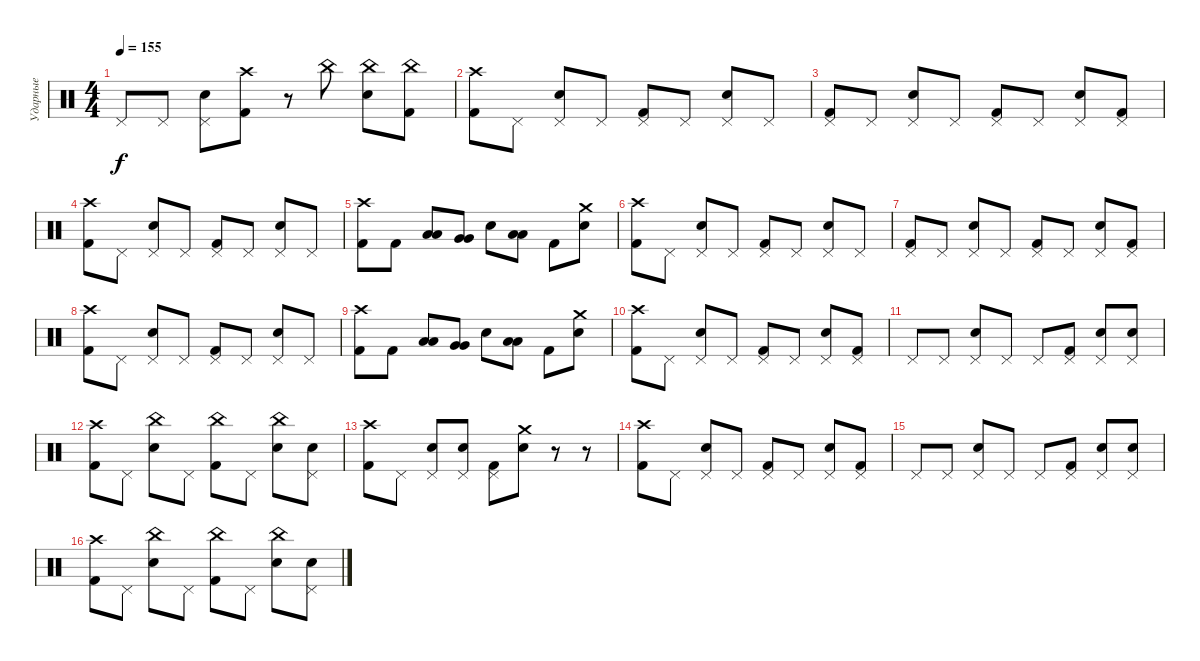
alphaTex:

\track ("Ударные" "Ударные") {instrument percussion}
\staff {score}
\articulation defaults
\ts (4 4)
\tempo 155
\clef neutral
\ks c "Pedal Hi-Hat (hit)".8{dy f} "Pedal Hi-Hat (hit)".8
("Pedal Hi-Hat (hit)" "Snare (hit) 2").8 ("Crash high (hit)" "Kick (hit) 2").8 r.8 "China (hit)".8 ("China (hit)" "Snare (hit) 2").8 ("China (hit)" "Kick (hit) 2").8 |
("Crash high (hit)" "Kick (hit) 2").8 "Pedal Hi-Hat (hit)".8 ("Pedal Hi-Hat (hit)" "Snare (hit) 2").8 "Pedal Hi-Hat (hit)".8 ("Pedal Hi-Hat (hit)" "Kick (hit) 2").8 "Pedal Hi-Hat (hit)".8 ("Pedal Hi-Hat (hit)" "Snare (hit) 2").8 "Pedal Hi-Hat (hit)".8 |
("Pedal Hi-Hat (hit)" "Kick (hit) 2").8 "Pedal Hi-Hat (hit)".8 ("Pedal Hi-Hat (hit)" "Snare (hit) 2").8 "Pedal Hi-Hat (hit)".8 ("Pedal Hi-Hat (hit)" "Kick (hit) 2").8 "Pedal Hi-Hat (hit)".8 ("Pedal Hi-Hat (hit)" "Snare (hit) 2").8 ("Pedal Hi-Hat (hit)" "Kick (hit) 2").8 |
("Crash high (hit)" "Kick (hit) 2").8 "Pedal Hi-Hat (hit)".8 ("Pedal Hi-Hat (hit)" "Snare (hit) 2").8 "Pedal Hi-Hat (hit)".8 ("Pedal Hi-Hat (hit)" "Kick (hit) 2").8 "Pedal Hi-Hat (hit)".8 ("Pedal Hi-Hat (hit)" "Snare (hit) 2").8 "Pedal Hi-Hat (hit)".8 |
("Crash high (hit)" "Kick (hit) 2").8 "Kick (hit) 2".8 ("Low Tom (hit)" "Low Tom (hit)").8 ("Very Low Tom (hit)" "Very Low Tom (hit)").8 "Snare (hit) 2".8 ("Low Floor Tom (hit)" "Low Floor Tom (hit)").8 "Kick (hit) 2".8 ("Crash medium (hit)" "Snare (hit) 2").8 |
("Crash high (hit)" "Kick (hit) 2").8 "Pedal Hi-Hat (hit)".8 ("Pedal Hi-Hat (hit)" "Snare (hit) 2").8 "Pedal Hi-Hat (hit)".8 ("Pedal Hi-Hat (hit)" "Kick (hit) 2").8 "Pedal Hi-Hat (hit)".8 ("Pedal Hi-Hat (hit)" "Snare (hit) 2").8 "Pedal Hi-Hat (hit)".8 |
("Pedal Hi-Hat (hit)" "Kick (hit) 2").8 "Pedal Hi-Hat (hit)".8 ("Pedal Hi-Hat (hit)" "Snare (hit) 2").8 "Pedal Hi-Hat (hit)".8 ("Pedal Hi-Hat (hit)" "Kick (hit) 2").8 "Pedal Hi-Hat (hit)".8 ("Pedal Hi-Hat (hit)" "Snare (hit) 2").8 ("Pedal Hi-Hat (hit)" "Kick (hit) 2").8 |
("Crash high (hit)" "Kick (hit) 2").8 "Pedal Hi-Hat (hit)".8 ("Pedal Hi-Hat (hit)" "Snare (hit) 2").8 "Pedal Hi-Hat (hit)".8 ("Pedal Hi-Hat (hit)" "Kick (hit) 2").8 "Pedal Hi-Hat (hit)".8 ("Pedal Hi-Hat (hit)" "Snare (hit) 2").8 "Pedal Hi-Hat (hit)".8 |
("Crash high (hit)" "Kick (hit) 2").8 "Kick (hit) 2".8 ("Low Tom (hit)" "Low Tom (hit)").8 ("Very Low Tom (hit)" "Very Low Tom (hit)").8 "Snare (hit) 2".8 ("Low Floor Tom (hit)" "Low Floor Tom (hit)").8 "Kick (hit) 2".8 ("Crash medium (hit)" "Snare (hit) 2").8 |
("Crash high (hit)" "Kick (hit) 2").8 "Pedal Hi-Hat (hit)".8 ("Pedal Hi-Hat (hit)" "Snare (hit) 2").8 "Pedal Hi-Hat (hit)".8 ("Pedal Hi-Hat (hit)" "Kick (hit) 2").8 "Pedal Hi-Hat (hit)".8 ("Pedal Hi-Hat (hit)" "Snare (hit) 2").8 ("Pedal Hi-Hat (hit)" "Kick (hit) 2").8 |
"Pedal Hi-Hat (hit)".8 "Pedal Hi-Hat (hit)".8 ("Pedal Hi-Hat (hit)" "Snare (hit) 2").8 "Pedal Hi-Hat (hit)".8 "Pedal Hi-Hat (hit)".8 ("Pedal Hi-Hat (hit)" "Kick (hit) 2").8 ("Pedal Hi-Hat (hit)" "Snare (hit) 2").8 ("Pedal Hi-Hat (hit)" "Snare (hit) 2").8 |
("Crash high (hit)" "Kick (hit) 2").8 "Pedal Hi-Hat (hit)".8 ("China (hit)" "Snare (hit) 2").8 "Pedal Hi-Hat (hit)".8 ("China (hit)" "Kick (hit) 2").8 "Pedal Hi-Hat (hit)".8 ("China (hit)" "Snare (hit) 2").8 ("Pedal Hi-Hat (hit)" "Snare (hit) 2").8 |
("Crash high (hit)" "Kick (hit) 2").8 "Pedal Hi-Hat (hit)".8 ("Pedal Hi-Hat (hit)" "Snare (hit) 2").8 ("Pedal Hi-Hat (hit)" "Snare (hit) 2").8 ("Pedal Hi-Hat (hit)" "Kick (hit) 2").8 ("Crash medium (hit)" "Snare (hit) 2").8 r.8 r.8 |
("Crash high (hit)" "Kick (hit) 2").8 "Pedal Hi-Hat (hit)".8 ("Pedal Hi-Hat (hit)" "Snare (hit) 2").8 "Pedal Hi-Hat (hit)".8 ("Pedal Hi-Hat (hit)" "Kick (hit) 2").8 "Pedal Hi-Hat (hit)".8 ("Pedal Hi-Hat (hit)" "Snare (hit) 2").8 ("Pedal Hi-Hat (hit)" "Kick (hit) 2").8 |
"Pedal Hi-Hat (hit)".8 "Pedal Hi-Hat (hit)".8 ("Pedal Hi-Hat (hit)" "Snare (hit) 2").8 "Pedal Hi-Hat (hit)".8 "Pedal Hi-Hat (hit)".8 ("Pedal Hi-Hat (hit)" "Kick (hit) 2").8 ("Pedal Hi-Hat (hit)" "Snare (hit) 2").8 ("Pedal Hi-Hat (hit)" "Snare (hit) 2").8 |
("Crash high (hit)" "Kick (hit) 2").8 "Pedal Hi-Hat (hit)".8 ("China (hit)" "Snare (hit) 2").8 "Pedal Hi-Hat (hit)".8 ("China (hit)" "Kick (hit) 2").8 "Pedal Hi-Hat (hit)".8 ("China (hit)" "Snare (hit) 2").8 ("Pedal Hi-Hat (hit)" "Snare (hit) 2").8
